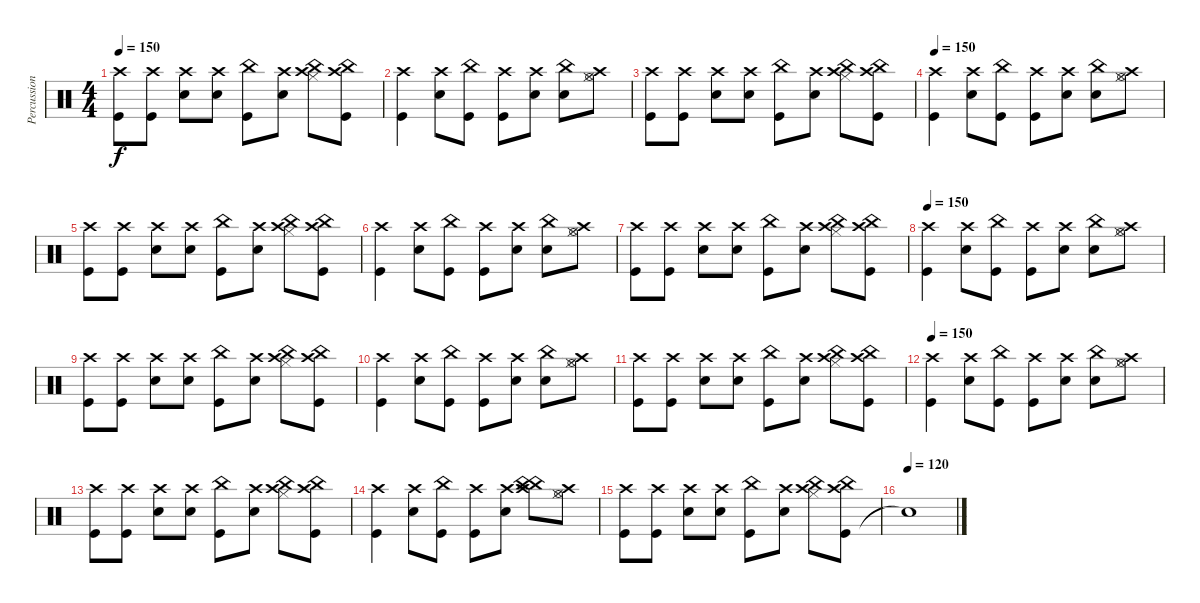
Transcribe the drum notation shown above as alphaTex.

\track ("Percussion" "Percussion") {instrument percussion}
\staff {score}
\articulation defaults
\ts (4 4)
\tempo 150
\clef neutral
\ks c
("Kick (hit)" "Crash high (hit)").8{dy f} ("Kick (hit)" "Crash high (hit)").8 ("Snare (hit) 2" "Crash high (hit)").8 ("Snare (hit) 2" "Crash high (hit)").8 ("Kick (hit)" "China (hit)").8 ("Snare (hit) 2" "Crash high (hit)").8 ("Hi-Hat (closed)" "Crash high (hit)" "China (hit)").8 ("Kick (hit)" "China (hit)" "Crash high (hit)").8 |
("Kick (hit)" "Crash high (hit)").4 ("Snare (hit) 2" "Crash high (hit)").8 ("Kick (hit)" "China (hit)").8 ("Kick (hit)" "Crash high (hit)").8 ("Snare (hit) 2" "Crash high (hit)").8 ("Snare (hit) 2" "China (hit)").8 ("Hi-Hat (closed)" "Hi-Hat (open)" "Crash high (hit)").8 |
("Kick (hit)" "Crash high (hit)").8 ("Kick (hit)" "Crash high (hit)").8 ("Snare (hit) 2" "Crash high (hit)").8 ("Snare (hit) 2" "Crash high (hit)").8 ("Kick (hit)" "China (hit)").8 ("Snare (hit) 2" "Crash high (hit)").8 ("Hi-Hat (closed)" "Crash high (hit)" "China (hit)").8 ("Kick (hit)" "China (hit)" "Crash high (hit)").8 |
\tempo 150
("Kick (hit)" "Crash high (hit)").4 ("Snare (hit) 2" "Crash high (hit)").8 ("Kick (hit)" "China (hit)").8 ("Kick (hit)" "Crash high (hit)").8 ("Snare (hit) 2" "Crash high (hit)").8 ("Snare (hit) 2" "China (hit)").8 ("Hi-Hat (closed)" "Hi-Hat (open)" "Crash high (hit)").8 |
("Kick (hit)" "Crash high (hit)").8 ("Kick (hit)" "Crash high (hit)").8 ("Snare (hit) 2" "Crash high (hit)").8 ("Snare (hit) 2" "Crash high (hit)").8 ("Kick (hit)" "China (hit)").8 ("Snare (hit) 2" "Crash high (hit)").8 ("Hi-Hat (closed)" "Crash high (hit)" "China (hit)").8 ("Kick (hit)" "China (hit)" "Crash high (hit)").8 |
("Kick (hit)" "Crash high (hit)").4 ("Snare (hit) 2" "Crash high (hit)").8 ("Kick (hit)" "China (hit)").8 ("Kick (hit)" "Crash high (hit)").8 ("Snare (hit) 2" "Crash high (hit)").8 ("Snare (hit) 2" "China (hit)").8 ("Hi-Hat (closed)" "Hi-Hat (open)" "Crash high (hit)").8 |
("Kick (hit)" "Crash high (hit)").8 ("Kick (hit)" "Crash high (hit)").8 ("Snare (hit) 2" "Crash high (hit)").8 ("Snare (hit) 2" "Crash high (hit)").8 ("Kick (hit)" "China (hit)").8 ("Snare (hit) 2" "Crash high (hit)").8 ("Hi-Hat (closed)" "Crash high (hit)" "China (hit)").8 ("Kick (hit)" "China (hit)" "Crash high (hit)").8 |
\tempo 150
("Kick (hit)" "Crash high (hit)").4 ("Snare (hit) 2" "Crash high (hit)").8 ("Kick (hit)" "China (hit)").8 ("Kick (hit)" "Crash high (hit)").8 ("Snare (hit) 2" "Crash high (hit)").8 ("Snare (hit) 2" "China (hit)").8 ("Hi-Hat (closed)" "Hi-Hat (open)" "Crash high (hit)").8 |
("Kick (hit)" "Crash high (hit)").8 ("Kick (hit)" "Crash high (hit)").8 ("Snare (hit) 2" "Crash high (hit)").8 ("Snare (hit) 2" "Crash high (hit)").8 ("Kick (hit)" "China (hit)").8 ("Snare (hit) 2" "Crash high (hit)").8 ("Hi-Hat (closed)" "Crash high (hit)" "China (hit)").8 ("Kick (hit)" "China (hit)" "Crash high (hit)").8 |
("Kick (hit)" "Crash high (hit)").4 ("Snare (hit) 2" "Crash high (hit)").8 ("Kick (hit)" "China (hit)").8 ("Kick (hit)" "Crash high (hit)").8 ("Snare (hit) 2" "Crash high (hit)").8 ("Snare (hit) 2" "China (hit)").8 ("Hi-Hat (closed)" "Hi-Hat (open)" "Crash high (hit)").8 |
("Kick (hit)" "Crash high (hit)").8 ("Kick (hit)" "Crash high (hit)").8 ("Snare (hit) 2" "Crash high (hit)").8 ("Snare (hit) 2" "Crash high (hit)").8 ("Kick (hit)" "China (hit)").8 ("Snare (hit) 2" "Crash high (hit)").8 ("Hi-Hat (closed)" "Crash high (hit)" "China (hit)").8 ("Kick (hit)" "China (hit)" "Crash high (hit)").8 |
\tempo 150
("Kick (hit)" "Crash high (hit)").4 ("Snare (hit) 2" "Crash high (hit)").8 ("Kick (hit)" "China (hit)").8 ("Kick (hit)" "Crash high (hit)").8 ("Snare (hit) 2" "Crash high (hit)").8 ("Snare (hit) 2" "China (hit)").8 ("Hi-Hat (closed)" "Hi-Hat (open)" "Crash high (hit)").8 |
("Kick (hit)" "Crash high (hit)").8 ("Kick (hit)" "Crash high (hit)").8 ("Snare (hit) 2" "Crash high (hit)").8 ("Snare (hit) 2" "Crash high (hit)").8 ("Kick (hit)" "China (hit)").8 ("Snare (hit) 2" "Crash high (hit)").8 ("Hi-Hat (closed)" "Crash high (hit)" "China (hit)").8 ("Kick (hit)" "China (hit)" "Crash high (hit)").8 |
("Kick (hit)" "Crash high (hit)").4 ("Snare (hit) 2" "Crash high (hit)").8 ("Kick (hit)" "China (hit)").8 ("Kick (hit)" "Crash high (hit)").8 ("Snare (hit) 2" "Crash high (hit)").8 ("China (hit)" "Crash high (hit)" "China (hit)").8 ("Hi-Hat (closed)" "Hi-Hat (open)" "Crash high (hit)").8 |
("Kick (hit)" "Crash high (hit)").8 ("Kick (hit)" "Crash high (hit)").8 ("Snare (hit) 2" "Crash high (hit)").8 ("Snare (hit) 2" "Crash high (hit)").8 ("Kick (hit)" "China (hit)").8 ("Snare (hit) 2" "Crash high (hit)").8 ("Hi-Hat (closed)" "Crash high (hit)" "China (hit)").8 ("Kick (hit)" "China (hit)" "Crash high (hit)").8 |
\tempo (120)
"Snare (hit)"{t}.1
